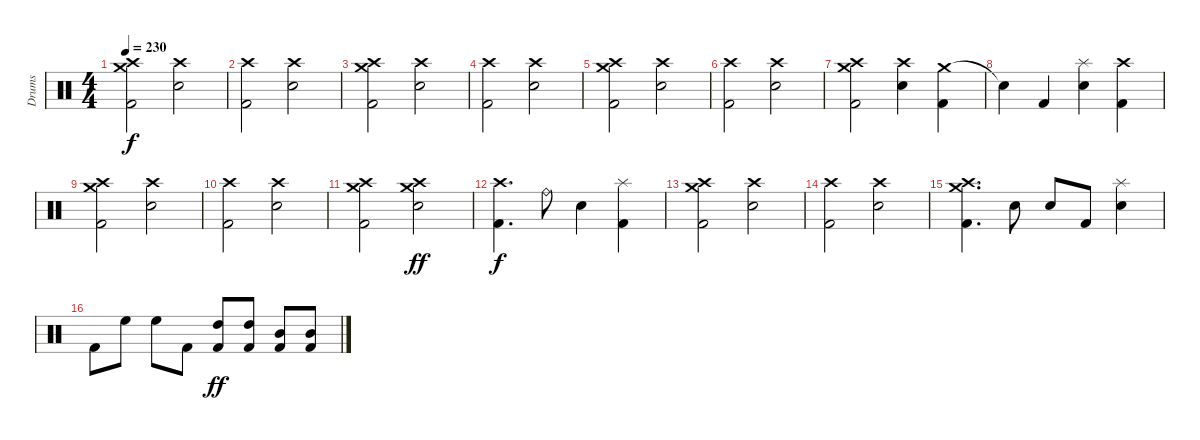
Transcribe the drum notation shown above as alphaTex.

\track ("Drums" "Drums") {instrument percussion}
\staff {score}
\articulation defaults
\ts (4 4)
\tempo 230
\clef neutral
\ks c
("Crash medium (hit)" "Crash high (hit)" "Kick (hit) 2").2{dy f} ("Crash high (hit)" "Electric Snare (hit)").2 |
("Crash high (hit)" "Kick (hit) 2").2 ("Crash high (hit)" "Electric Snare (hit)").2 |
("Crash medium (hit)" "Crash high (hit)" "Kick (hit) 2").2 ("Crash high (hit)" "Electric Snare (hit)").2 |
("Crash high (hit)" "Kick (hit) 2").2 ("Crash high (hit)" "Electric Snare (hit)").2 |
("Crash medium (hit)" "Crash high (hit)" "Kick (hit) 2").2 ("Crash high (hit)" "Electric Snare (hit)").2 |
("Crash high (hit)" "Kick (hit) 2").2 ("Crash high (hit)" "Electric Snare (hit)").2 |
("Crash medium (hit)" "Crash high (hit)" "Kick (hit) 2").2 ("Crash high (hit)" "Electric Snare (hit)").4 ("Crash medium (hit)" "Kick (hit) 2").4 |
"Snare (hit)"{t}.4 "Kick (hit) 2".4 ("Splash (hit)" "Electric Snare (hit)").4 ("Crash high (hit)" "Kick (hit) 2").4 |
("Crash medium (hit)" "Crash high (hit)" "Kick (hit) 2").2 ("Crash high (hit)" "Electric Snare (hit)").2 |
("Crash high (hit)" "Kick (hit) 2").2 ("Crash high (hit)" "Electric Snare (hit)").2 |
("Crash medium (hit)" "Crash high (hit)" "Kick (hit) 2").2 ("Crash medium (hit)" "Crash high (hit)" "Electric Snare (hit)").2{dy ff} |
("Crash high (hit)" "Kick (hit) 2").4{d dy f} "Ride (bell)".8 "Electric Snare (hit)".4 ("Splash (hit)" "Kick (hit) 2").4 |
("Crash medium (hit)" "Crash high (hit)" "Kick (hit) 2").2 ("Crash high (hit)" "Electric Snare (hit)").2 |
("Crash high (hit)" "Kick (hit) 2").2 ("Crash high (hit)" "Electric Snare (hit)").2 |
("Crash medium (hit)" "Crash high (hit)" "Kick (hit) 2").4{d} "Electric Snare (hit)".8 "Electric Snare (hit)".8 "Kick (hit) 2".8 ("Splash (hit)" "Electric Snare (hit)").4 |
"Kick (hit) 2".8 "High Floor Tom (hit)".8 "High Floor Tom (hit)".8 "Kick (hit) 2".8 ("High Tom (hit)" "Kick (hit) 2").8{dy ff} ("High Tom (hit)" "Kick (hit) 2").8 ("Mid Tom (hit)" "Kick (hit) 2").8 ("Mid Tom (hit)" "Kick (hit) 2").8
